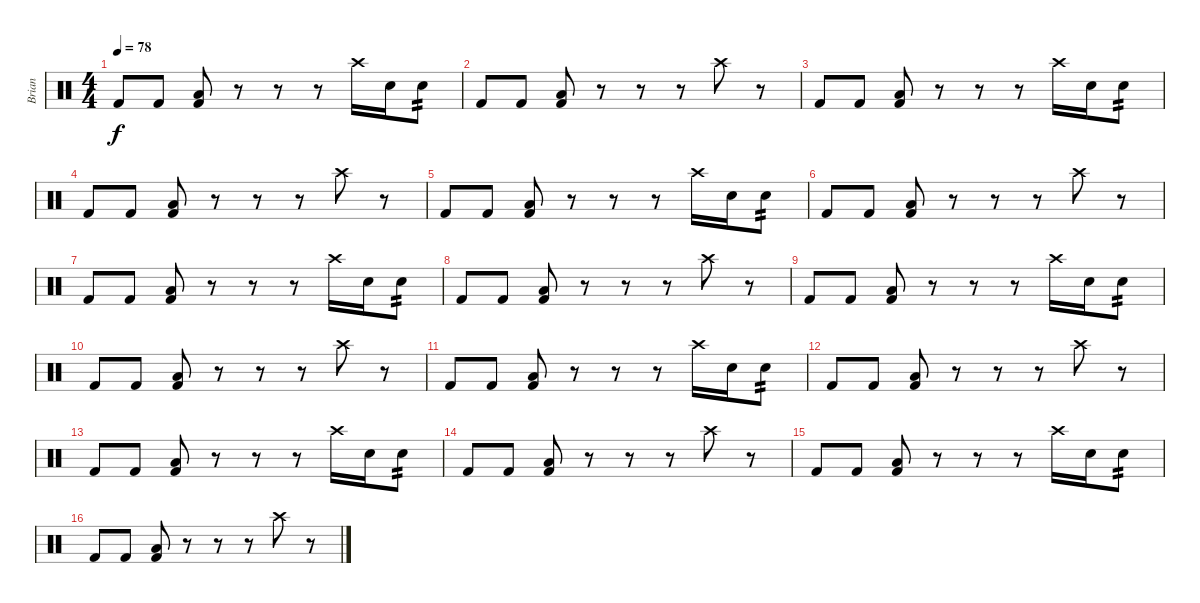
\track ("Brian" "Brian") {instrument percussion}
\staff {score}
\articulation defaults
\ts (4 4)
\tempo 78
\clef neutral
\ks c "Kick (hit) 2".8{dy f} "Kick (hit) 2".8
("Low Tom (hit)" "Kick (hit) 2").8 r.8 r.8 r.8 "Crash high (hit)".16 "Electric Snare (hit)".16 "Electric Snare (hit)".8{tp 2} |
"Kick (hit) 2".8 "Kick (hit) 2".8 ("Low Tom (hit)" "Kick (hit) 2").8 r.8 r.8 r.8 "Crash high (hit)".8 r.8 |
"Kick (hit) 2".8 "Kick (hit) 2".8 ("Low Tom (hit)" "Kick (hit) 2").8 r.8 r.8 r.8 "Crash high (hit)".16 "Electric Snare (hit)".16 "Electric Snare (hit)".8{tp 2} |
"Kick (hit) 2".8 "Kick (hit) 2".8 ("Low Tom (hit)" "Kick (hit) 2").8 r.8 r.8 r.8 "Crash high (hit)".8 r.8 |
"Kick (hit) 2".8 "Kick (hit) 2".8 ("Low Tom (hit)" "Kick (hit) 2").8 r.8 r.8 r.8 "Crash high (hit)".16 "Electric Snare (hit)".16 "Electric Snare (hit)".8{tp 2} |
"Kick (hit) 2".8 "Kick (hit) 2".8 ("Low Tom (hit)" "Kick (hit) 2").8 r.8 r.8 r.8 "Crash high (hit)".8 r.8 |
"Kick (hit) 2".8 "Kick (hit) 2".8 ("Low Tom (hit)" "Kick (hit) 2").8 r.8 r.8 r.8 "Crash high (hit)".16 "Electric Snare (hit)".16 "Electric Snare (hit)".8{tp 2} |
"Kick (hit) 2".8 "Kick (hit) 2".8 ("Low Tom (hit)" "Kick (hit) 2").8 r.8 r.8 r.8 "Crash high (hit)".8 r.8 |
"Kick (hit) 2".8 "Kick (hit) 2".8 ("Low Tom (hit)" "Kick (hit) 2").8 r.8 r.8 r.8 "Crash high (hit)".16 "Electric Snare (hit)".16 "Electric Snare (hit)".8{tp 2} |
"Kick (hit) 2".8 "Kick (hit) 2".8 ("Low Tom (hit)" "Kick (hit) 2").8 r.8 r.8 r.8 "Crash high (hit)".8 r.8 |
"Kick (hit) 2".8 "Kick (hit) 2".8 ("Low Tom (hit)" "Kick (hit) 2").8 r.8 r.8 r.8 "Crash high (hit)".16 "Electric Snare (hit)".16 "Electric Snare (hit)".8{tp 2} |
"Kick (hit) 2".8 "Kick (hit) 2".8 ("Low Tom (hit)" "Kick (hit) 2").8 r.8 r.8 r.8 "Crash high (hit)".8 r.8 |
"Kick (hit) 2".8 "Kick (hit) 2".8 ("Low Tom (hit)" "Kick (hit) 2").8 r.8 r.8 r.8 "Crash high (hit)".16 "Electric Snare (hit)".16 "Electric Snare (hit)".8{tp 2} |
"Kick (hit) 2".8 "Kick (hit) 2".8 ("Low Tom (hit)" "Kick (hit) 2").8 r.8 r.8 r.8 "Crash high (hit)".8 r.8 |
"Kick (hit) 2".8 "Kick (hit) 2".8 ("Low Tom (hit)" "Kick (hit) 2").8 r.8 r.8 r.8 "Crash high (hit)".16 "Electric Snare (hit)".16 "Electric Snare (hit)".8{tp 2} |
"Kick (hit) 2".8 "Kick (hit) 2".8 ("Low Tom (hit)" "Kick (hit) 2").8 r.8 r.8 r.8 "Crash high (hit)".8 r.8
